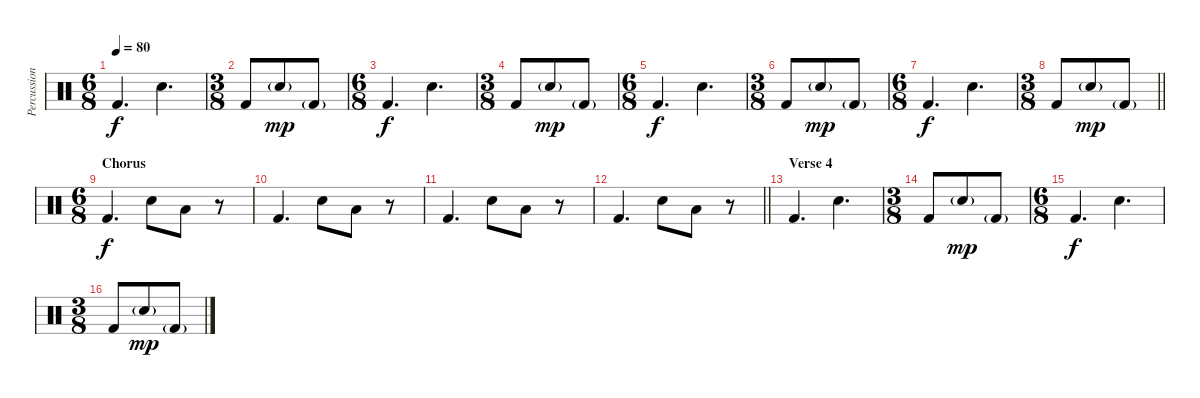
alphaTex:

\track ("Percussion" "Percussion") {instrument percussion}
\staff {score}
\articulation defaults
\ts (6 8)
\tempo 80
\clef neutral
\ks c "Kick (hit) 2".4{d dy f} "Snare (hit) 2".4{d}
|
\ts (3 8)
"Kick (hit) 2".8 "Snare (hit) 2"{g}.8{dy mp} "Kick (hit) 2"{g}.8 |
\ts (6 8)
"Kick (hit) 2".4{d dy f} "Snare (hit) 2".4{d} |
\ts (3 8)
"Kick (hit) 2".8 "Snare (hit) 2"{g}.8{dy mp} "Kick (hit) 2"{g}.8 |
\ts (6 8)
"Kick (hit) 2".4{d dy f} "Snare (hit) 2".4{d} |
\ts (3 8)
"Kick (hit) 2".8 "Snare (hit) 2"{g}.8{dy mp} "Kick (hit) 2"{g}.8 |
\ts (6 8)
"Kick (hit) 2".4{d dy f} "Snare (hit) 2".4{d} |
\ts (3 8)
\barLineRight lightlight "Kick (hit) 2".8 "Snare (hit) 2"{g}.8{dy mp} "Kick (hit) 2"{g}.8
|
\ts (6 8)
\section ("" "Chorus")
"Kick (hit) 2".4{d dy f} "Snare (hit) 2".8 "Low Floor Tom (hit)".8 r.8 |
"Kick (hit) 2".4{d} "Snare (hit) 2".8 "Low Floor Tom (hit)".8 r.8 |
"Kick (hit) 2".4{d} "Snare (hit) 2".8 "Low Floor Tom (hit)".8 r.8 |
\barLineRight lightlight "Kick (hit) 2".4{d} "Snare (hit) 2".8 "Low Floor Tom (hit)".8
r.8 |
\section ("" "Verse 4")
"Kick (hit) 2".4{d} "Snare (hit) 2".4{d} |
\ts (3 8)
"Kick (hit) 2".8 "Snare (hit) 2"{g}.8{dy mp} "Kick (hit) 2"{g}.8 |
\ts (6 8)
"Kick (hit) 2".4{d dy f} "Snare (hit) 2".4{d} |
\ts (3 8)
"Kick (hit) 2".8 "Snare (hit) 2"{g}.8{dy mp} "Kick (hit) 2"{g}.8
